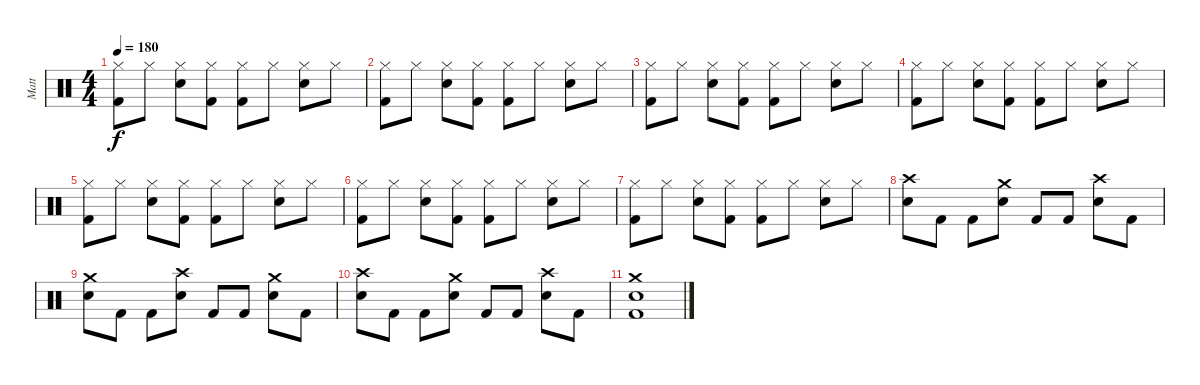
\track ("Matt" "Matt") {instrument percussion}
\staff {score}
\articulation defaults
\ts (4 4)
\tempo 180
\clef neutral
\ks c
("Hi-Hat (closed)" "Kick (hit) 2").8{dy f} "Hi-Hat (closed)".8 ("Hi-Hat (closed)" "Snare (hit) 2").8 ("Hi-Hat (closed)" "Kick (hit) 2").8 ("Hi-Hat (closed)" "Kick (hit) 2").8 "Hi-Hat (closed)".8 ("Hi-Hat (closed)" "Snare (hit) 2").8 "Hi-Hat (closed)".8 |
("Hi-Hat (closed)" "Kick (hit) 2").8 "Hi-Hat (closed)".8 ("Hi-Hat (closed)" "Snare (hit) 2").8 ("Hi-Hat (closed)" "Kick (hit) 2").8 ("Hi-Hat (closed)" "Kick (hit) 2").8 "Hi-Hat (closed)".8 ("Hi-Hat (closed)" "Snare (hit) 2").8 "Hi-Hat (closed)".8 |
("Hi-Hat (closed)" "Kick (hit) 2").8 "Hi-Hat (closed)".8 ("Hi-Hat (closed)" "Snare (hit) 2").8 ("Hi-Hat (closed)" "Kick (hit) 2").8 ("Hi-Hat (closed)" "Kick (hit) 2").8 "Hi-Hat (closed)".8 ("Hi-Hat (closed)" "Snare (hit) 2").8 "Hi-Hat (closed)".8 |
("Hi-Hat (closed)" "Kick (hit) 2").8 "Hi-Hat (closed)".8 ("Hi-Hat (closed)" "Snare (hit) 2").8 ("Hi-Hat (closed)" "Kick (hit) 2").8 ("Hi-Hat (closed)" "Kick (hit) 2").8 "Hi-Hat (closed)".8 ("Hi-Hat (closed)" "Snare (hit) 2").8 "Hi-Hat (closed)".8 |
("Hi-Hat (closed)" "Kick (hit) 2").8 "Hi-Hat (closed)".8 ("Hi-Hat (closed)" "Snare (hit) 2").8 ("Hi-Hat (closed)" "Kick (hit) 2").8 ("Hi-Hat (closed)" "Kick (hit) 2").8 "Hi-Hat (closed)".8 ("Hi-Hat (closed)" "Snare (hit) 2").8 "Hi-Hat (closed)".8 |
("Hi-Hat (closed)" "Kick (hit) 2").8 "Hi-Hat (closed)".8 ("Hi-Hat (closed)" "Snare (hit) 2").8 ("Hi-Hat (closed)" "Kick (hit) 2").8 ("Hi-Hat (closed)" "Kick (hit) 2").8 "Hi-Hat (closed)".8 ("Hi-Hat (closed)" "Snare (hit) 2").8 "Hi-Hat (closed)".8 |
("Hi-Hat (closed)" "Kick (hit) 2").8 "Hi-Hat (closed)".8 ("Hi-Hat (closed)" "Snare (hit) 2").8 ("Hi-Hat (closed)" "Kick (hit) 2").8 ("Hi-Hat (closed)" "Kick (hit) 2").8 "Hi-Hat (closed)".8 ("Hi-Hat (closed)" "Snare (hit) 2").8 "Hi-Hat (closed)".8 |
("Crash high (hit)" "Snare (hit) 2").8 "Kick (hit) 2".8 "Kick (hit) 2".8 ("Crash medium (hit)" "Snare (hit) 2").8 "Kick (hit) 2".8 "Kick (hit) 2".8 ("Crash high (hit)" "Snare (hit) 2").8 "Kick (hit) 2".8 |
("Crash medium (hit)" "Snare (hit) 2").8 "Kick (hit) 2".8 "Kick (hit) 2".8 ("Crash high (hit)" "Snare (hit) 2").8 "Kick (hit) 2".8 "Kick (hit) 2".8 ("Crash medium (hit)" "Snare (hit) 2").8 "Kick (hit) 2".8 |
("Crash high (hit)" "Snare (hit) 2").8 "Kick (hit) 2".8 "Kick (hit) 2".8 ("Crash medium (hit)" "Snare (hit) 2").8 "Kick (hit) 2".8 "Kick (hit) 2".8 ("Crash high (hit)" "Snare (hit) 2").8 "Kick (hit) 2".8 |
("Crash medium (hit)" "Snare (hit) 2" "Kick (hit) 2").1
